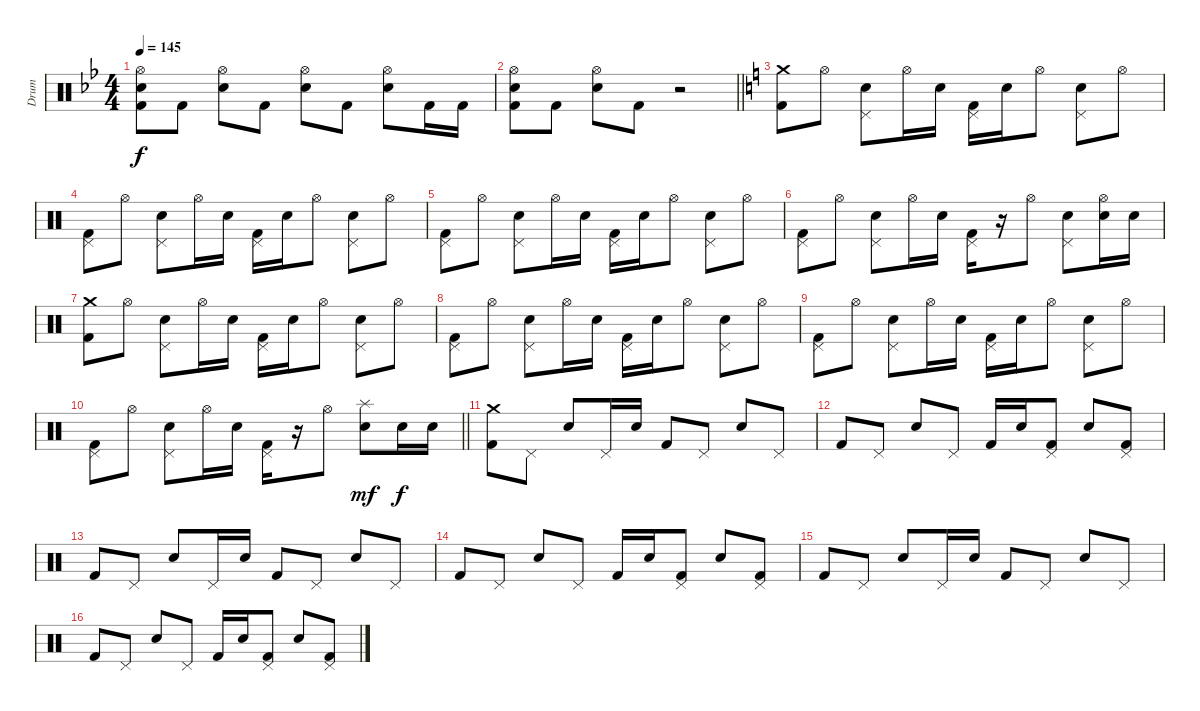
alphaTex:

\track ("Drum" "Drum") {instrument percussion}
\staff {score}
\articulation defaults
\ts (4 4)
\tempo 145
\clef neutral
\ks bb
("Hi-Hat (open)" "Snare (hit) 2" "Kick (hit) 2").8{dy f} "Kick (hit) 2".8 ("Hi-Hat (open)" "Snare (hit) 2").8 "Kick (hit) 2".8 ("Hi-Hat (open)" "Snare (hit) 2").8 "Kick (hit) 2".8 ("Hi-Hat (open)" "Snare (hit) 2").8 "Kick (hit) 2".16 "Kick (hit) 2".16 |
\barLineRight lightlight
("Hi-Hat (open)" "Snare (hit) 2" "Kick (hit) 2").8 "Kick (hit) 2".8 ("Hi-Hat (open)" "Snare (hit) 2").8 "Kick (hit) 2".8 r.2 |
\ks c
("Crash medium (hit)" "Kick (hit) 2").8 "Hi-Hat (open)".8 ("Pedal Hi-Hat (hit)" "Snare (hit) 2").8 "Hi-Hat (open)".16 "Snare (hit) 2".16 ("Pedal Hi-Hat (hit)" "Kick (hit) 2").16 "Snare (hit) 2".16 "Hi-Hat (open)".8 ("Pedal Hi-Hat (hit)" "Snare (hit) 2").8 "Hi-Hat (open)".8 |
("Pedal Hi-Hat (hit)" "Kick (hit) 2").8 "Hi-Hat (open)".8 ("Pedal Hi-Hat (hit)" "Snare (hit) 2").8 "Hi-Hat (open)".16 "Snare (hit) 2".16 ("Pedal Hi-Hat (hit)" "Kick (hit) 2").16 "Snare (hit) 2".16 "Hi-Hat (open)".8 ("Pedal Hi-Hat (hit)" "Snare (hit) 2").8 "Hi-Hat (open)".8 |
("Pedal Hi-Hat (hit)" "Kick (hit) 2").8 "Hi-Hat (open)".8 ("Pedal Hi-Hat (hit)" "Snare (hit) 2").8 "Hi-Hat (open)".16 "Snare (hit) 2".16 ("Pedal Hi-Hat (hit)" "Kick (hit) 2").16 "Snare (hit) 2".16 "Hi-Hat (open)".8 ("Pedal Hi-Hat (hit)" "Snare (hit) 2").8 "Hi-Hat (open)".8 |
("Pedal Hi-Hat (hit)" "Kick (hit) 2").8 "Hi-Hat (open)".8 ("Pedal Hi-Hat (hit)" "Snare (hit) 2").8 "Hi-Hat (open)".16 "Snare (hit) 2".16 ("Pedal Hi-Hat (hit)" "Kick (hit) 2").16 r.16 "Hi-Hat (open)".8 ("Pedal Hi-Hat (hit)" "Snare (hit) 2").8 ("Hi-Hat (open)" "Snare (hit) 2").16 "Snare (hit) 2".16 |
("Crash medium (hit)" "Kick (hit) 2").8 "Hi-Hat (open)".8 ("Pedal Hi-Hat (hit)" "Snare (hit) 2").8 "Hi-Hat (open)".16 "Snare (hit) 2".16 ("Pedal Hi-Hat (hit)" "Kick (hit) 2").16 "Snare (hit) 2".16 "Hi-Hat (open)".8 ("Pedal Hi-Hat (hit)" "Snare (hit) 2").8 "Hi-Hat (open)".8 |
("Pedal Hi-Hat (hit)" "Kick (hit) 2").8 "Hi-Hat (open)".8 ("Pedal Hi-Hat (hit)" "Snare (hit) 2").8 "Hi-Hat (open)".16 "Snare (hit) 2".16 ("Pedal Hi-Hat (hit)" "Kick (hit) 2").16 "Snare (hit) 2".16 "Hi-Hat (open)".8 ("Pedal Hi-Hat (hit)" "Snare (hit) 2").8 "Hi-Hat (open)".8 |
("Pedal Hi-Hat (hit)" "Kick (hit) 2").8 "Hi-Hat (open)".8 ("Pedal Hi-Hat (hit)" "Snare (hit) 2").8 "Hi-Hat (open)".16 "Snare (hit) 2".16 ("Pedal Hi-Hat (hit)" "Kick (hit) 2").16 "Snare (hit) 2".16 "Hi-Hat (open)".8 ("Pedal Hi-Hat (hit)" "Snare (hit) 2").8 "Hi-Hat (open)".8 |
\barLineRight lightlight
("Pedal Hi-Hat (hit)" "Kick (hit) 2").8 "Hi-Hat (open)".8 ("Pedal Hi-Hat (hit)" "Snare (hit) 2").8 "Hi-Hat (open)".16 "Snare (hit) 2".16 ("Pedal Hi-Hat (hit)" "Kick (hit) 2").16 r.16 "Hi-Hat (open)".8 ("Splash (hit)" "Snare (hit) 2").8{dy mf} "Snare (hit) 2".16{dy f} "Snare (hit) 2".16 |
("Crash medium (hit)" "Kick (hit) 2").8 "Pedal Hi-Hat (hit)".8 "Snare (hit) 2".8 "Pedal Hi-Hat (hit)".16 "Snare (hit) 2".16 "Kick (hit) 2".8 "Pedal Hi-Hat (hit)".8 "Snare (hit) 2".8 "Pedal Hi-Hat (hit)".8 |
"Kick (hit) 2".8 "Pedal Hi-Hat (hit)".8 "Snare (hit) 2".8 "Pedal Hi-Hat (hit)".8 "Kick (hit) 2".16 "Snare (hit) 2".16 ("Pedal Hi-Hat (hit)" "Kick (hit) 2").8 "Snare (hit) 2".8 ("Pedal Hi-Hat (hit)" "Kick (hit) 2").8 |
"Kick (hit) 2".8 "Pedal Hi-Hat (hit)".8 "Snare (hit) 2".8 "Pedal Hi-Hat (hit)".16 "Snare (hit) 2".16 "Kick (hit) 2".8 "Pedal Hi-Hat (hit)".8 "Snare (hit) 2".8 "Pedal Hi-Hat (hit)".8 |
"Kick (hit) 2".8 "Pedal Hi-Hat (hit)".8 "Snare (hit) 2".8 "Pedal Hi-Hat (hit)".8 "Kick (hit) 2".16 "Snare (hit) 2".16 ("Pedal Hi-Hat (hit)" "Kick (hit) 2").8 "Snare (hit) 2".8 ("Pedal Hi-Hat (hit)" "Kick (hit) 2").8 |
"Kick (hit) 2".8 "Pedal Hi-Hat (hit)".8 "Snare (hit) 2".8 "Pedal Hi-Hat (hit)".16 "Snare (hit) 2".16 "Kick (hit) 2".8 "Pedal Hi-Hat (hit)".8 "Snare (hit) 2".8 "Pedal Hi-Hat (hit)".8 |
"Kick (hit) 2".8 "Pedal Hi-Hat (hit)".8 "Snare (hit) 2".8 "Pedal Hi-Hat (hit)".8 "Kick (hit) 2".16 "Snare (hit) 2".16 ("Pedal Hi-Hat (hit)" "Kick (hit) 2").8 "Snare (hit) 2".8 ("Pedal Hi-Hat (hit)" "Kick (hit) 2").8
